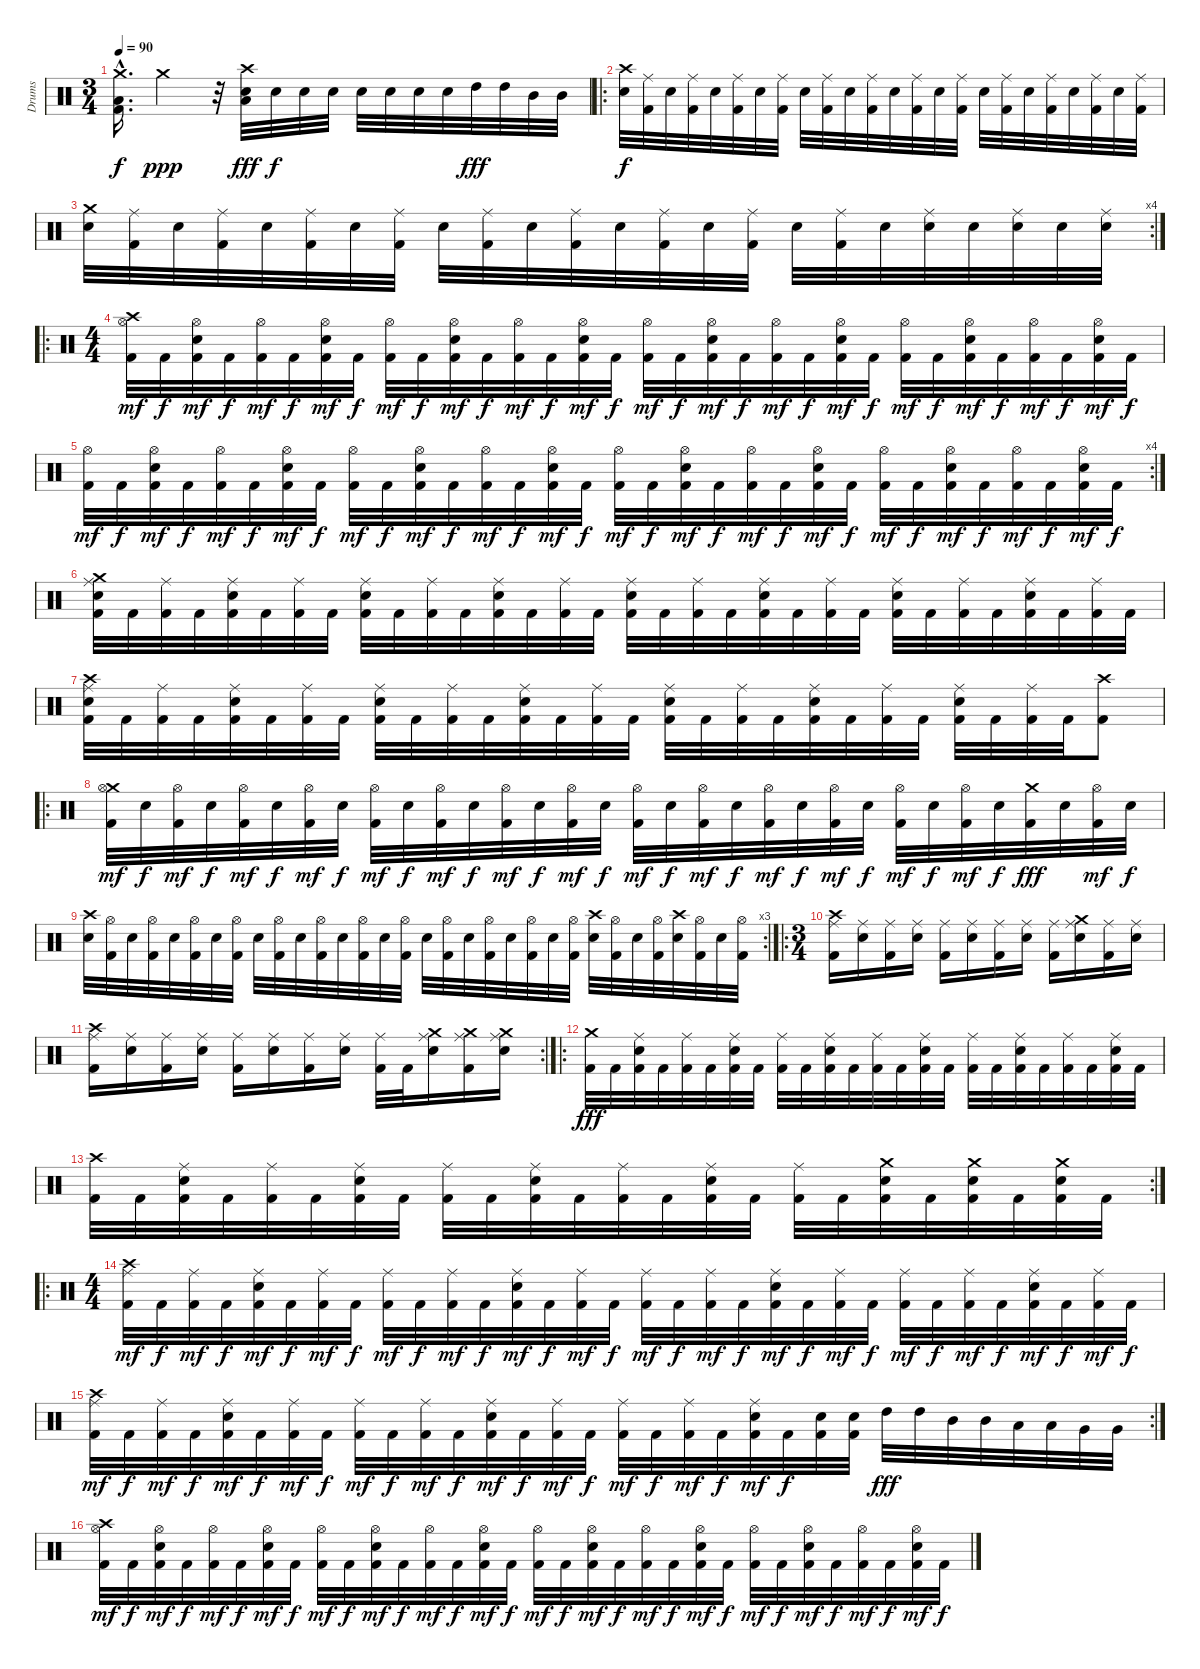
\track ("Drums" "Drums") {instrument percussion}
\staff {score}
\articulation defaults
\ts (3 4)
\tempo 90
\clef neutral
\ks c
("Crash medium (hit)"{hac} "Low Tom (hit)"{hac} "Kick (hit) 2"{hac}).16{d dy f} "Crash medium (hit)".4{dy ppp} r.32 ("Crash high (hit)" "Low Tom (hit)" "Electric Snare (hit)").32{dy fff} "Electric Snare (hit)".32{dy f} "Electric Snare (hit)".32 "Electric Snare (hit)".32 "Electric Snare (hit)".32 "Electric Snare (hit)".32 "Electric Snare (hit)".32 "Electric Snare (hit)".32 "High Tom (hit)".32{dy fff} "High Tom (hit)".32 "Mid Tom (hit)".32 "Mid Tom (hit)".32 |
\ro
("Crash high (hit)" "Electric Snare (hit)").32{dy f} ("Ride (middle)" "Kick (hit) 2").32 "Electric Snare (hit)".32 ("Ride (middle)" "Kick (hit) 2").32 "Electric Snare (hit)".32 ("Ride (middle)" "Kick (hit) 2").32 "Electric Snare (hit)".32 ("Ride (middle)" "Kick (hit) 2").32 "Electric Snare (hit)".32 ("Ride (middle)" "Kick (hit) 2").32 "Electric Snare (hit)".32 ("Ride (middle)" "Kick (hit) 2").32 "Electric Snare (hit)".32 ("Ride (middle)" "Kick (hit) 2").32 "Electric Snare (hit)".32 ("Ride (middle)" "Kick (hit) 2").32 "Electric Snare (hit)".32 ("Ride (middle)" "Kick (hit) 2").32 "Electric Snare (hit)".32 ("Ride (middle)" "Kick (hit) 2").32 "Electric Snare (hit)".32 ("Ride (middle)" "Kick (hit) 2").32 "Electric Snare (hit)".32 ("Ride (middle)" "Kick (hit) 2").32 |
\rc 4
("Crash medium (hit)" "Electric Snare (hit)").32 ("Ride (middle)" "Kick (hit) 2").32 "Electric Snare (hit)".32 ("Ride (middle)" "Kick (hit) 2").32 "Electric Snare (hit)".32 ("Ride (middle)" "Kick (hit) 2").32 "Electric Snare (hit)".32 ("Ride (middle)" "Kick (hit) 2").32 "Electric Snare (hit)".32 ("Ride (middle)" "Kick (hit) 2").32 "Electric Snare (hit)".32 ("Ride (middle)" "Kick (hit) 2").32 "Electric Snare (hit)".32 ("Ride (middle)" "Kick (hit) 2").32 "Electric Snare (hit)".32 ("Ride (middle)" "Kick (hit) 2").32 "Electric Snare (hit)".32 ("Ride (middle)" "Kick (hit) 2").32 "Electric Snare (hit)".32 ("Ride (middle)" "Electric Snare (hit)").32 "Electric Snare (hit)".32 ("Ride (middle)" "Electric Snare (hit)").32 "Electric Snare (hit)".32 ("Ride (middle)" "Electric Snare (hit)").32 |
\ro
\ts (4 4)
("Crash high (hit)" "Hi-Hat (open)" "Kick (hit) 2").32{dy mf} "Kick (hit) 2".32{dy f} ("Hi-Hat (open)" "Electric Snare (hit)" "Kick (hit) 2").32{dy mf} "Kick (hit) 2".32{dy f} ("Hi-Hat (open)" "Kick (hit) 2").32{dy mf} "Kick (hit) 2".32{dy f} ("Hi-Hat (open)" "Electric Snare (hit)" "Kick (hit) 2").32{dy mf} "Kick (hit) 2".32{dy f} ("Hi-Hat (open)" "Kick (hit) 2").32{dy mf} "Kick (hit) 2".32{dy f} ("Hi-Hat (open)" "Electric Snare (hit)" "Kick (hit) 2").32{dy mf} "Kick (hit) 2".32{dy f} ("Hi-Hat (open)" "Kick (hit) 2").32{dy mf} "Kick (hit) 2".32{dy f} ("Hi-Hat (open)" "Electric Snare (hit)" "Kick (hit) 2").32{dy mf} "Kick (hit) 2".32{dy f} ("Hi-Hat (open)" "Kick (hit) 2").32{dy mf} "Kick (hit) 2".32{dy f} ("Hi-Hat (open)" "Electric Snare (hit)" "Kick (hit) 2").32{dy mf} "Kick (hit) 2".32{dy f} ("Hi-Hat (open)" "Kick (hit) 2").32{dy mf} "Kick (hit) 2".32{dy f} ("Hi-Hat (open)" "Electric Snare (hit)" "Kick (hit) 2").32{dy mf} "Kick (hit) 2".32{dy f} ("Hi-Hat (open)" "Kick (hit) 2").32{dy mf} "Kick (hit) 2".32{dy f} ("Hi-Hat (open)" "Electric Snare (hit)" "Kick (hit) 2").32{dy mf} "Kick (hit) 2".32{dy f} ("Hi-Hat (open)" "Kick (hit) 2").32{dy mf} "Kick (hit) 2".32{dy f} ("Hi-Hat (open)" "Electric Snare (hit)" "Kick (hit) 2").32{dy mf} "Kick (hit) 2".32{dy f} |
\rc 4
("Hi-Hat (open)" "Kick (hit) 2").32{dy mf} "Kick (hit) 2".32{dy f} ("Hi-Hat (open)" "Electric Snare (hit)" "Kick (hit) 2").32{dy mf} "Kick (hit) 2".32{dy f} ("Hi-Hat (open)" "Kick (hit) 2").32{dy mf} "Kick (hit) 2".32{dy f} ("Hi-Hat (open)" "Electric Snare (hit)" "Kick (hit) 2").32{dy mf} "Kick (hit) 2".32{dy f} ("Hi-Hat (open)" "Kick (hit) 2").32{dy mf} "Kick (hit) 2".32{dy f} ("Hi-Hat (open)" "Electric Snare (hit)" "Kick (hit) 2").32{dy mf} "Kick (hit) 2".32{dy f} ("Hi-Hat (open)" "Kick (hit) 2").32{dy mf} "Kick (hit) 2".32{dy f} ("Hi-Hat (open)" "Electric Snare (hit)" "Kick (hit) 2").32{dy mf} "Kick (hit) 2".32{dy f} ("Hi-Hat (open)" "Kick (hit) 2").32{dy mf} "Kick (hit) 2".32{dy f} ("Hi-Hat (open)" "Electric Snare (hit)" "Kick (hit) 2").32{dy mf} "Kick (hit) 2".32{dy f} ("Hi-Hat (open)" "Kick (hit) 2").32{dy mf} "Kick (hit) 2".32{dy f} ("Hi-Hat (open)" "Electric Snare (hit)" "Kick (hit) 2").32{dy mf} "Kick (hit) 2".32{dy f} ("Hi-Hat (open)" "Kick (hit) 2").32{dy mf} "Kick (hit) 2".32{dy f} ("Hi-Hat (open)" "Electric Snare (hit)" "Kick (hit) 2").32{dy mf} "Kick (hit) 2".32{dy f} ("Hi-Hat (open)" "Kick (hit) 2").32{dy mf} "Kick (hit) 2".32{dy f} ("Hi-Hat (open)" "Electric Snare (hit)" "Kick (hit) 2").32{dy mf} "Kick (hit) 2".32{dy f} |
("Crash medium (hit)" "Ride (middle)" "Electric Snare (hit)" "Kick (hit) 2").32 "Kick (hit) 2".32 ("Ride (middle)" "Kick (hit) 2").32 "Kick (hit) 2".32 ("Ride (middle)" "Electric Snare (hit)" "Kick (hit) 2").32 "Kick (hit) 2".32 ("Ride (middle)" "Kick (hit) 2").32 "Kick (hit) 2".32 ("Ride (middle)" "Electric Snare (hit)" "Kick (hit) 2").32 "Kick (hit) 2".32 ("Ride (middle)" "Kick (hit) 2").32 "Kick (hit) 2".32 ("Ride (middle)" "Electric Snare (hit)" "Kick (hit) 2").32 "Kick (hit) 2".32 ("Ride (middle)" "Kick (hit) 2").32 "Kick (hit) 2".32 ("Ride (middle)" "Electric Snare (hit)" "Kick (hit) 2").32 "Kick (hit) 2".32 ("Ride (middle)" "Kick (hit) 2").32 "Kick (hit) 2".32 ("Ride (middle)" "Electric Snare (hit)" "Kick (hit) 2").32 "Kick (hit) 2".32 ("Ride (middle)" "Kick (hit) 2").32 "Kick (hit) 2".32 ("Ride (middle)" "Electric Snare (hit)" "Kick (hit) 2").32 "Kick (hit) 2".32 ("Ride (middle)" "Kick (hit) 2").32 "Kick (hit) 2".32 ("Ride (middle)" "Electric Snare (hit)" "Kick (hit) 2").32 "Kick (hit) 2".32 ("Ride (middle)" "Kick (hit) 2").32 "Kick (hit) 2".32 |
("Crash high (hit)" "Ride (middle)" "Electric Snare (hit)" "Kick (hit) 2").32 "Kick (hit) 2".32 ("Ride (middle)" "Kick (hit) 2").32 "Kick (hit) 2".32 ("Ride (middle)" "Electric Snare (hit)" "Kick (hit) 2").32 "Kick (hit) 2".32 ("Ride (middle)" "Kick (hit) 2").32 "Kick (hit) 2".32 ("Ride (middle)" "Electric Snare (hit)" "Kick (hit) 2").32 "Kick (hit) 2".32 ("Ride (middle)" "Kick (hit) 2").32 "Kick (hit) 2".32 ("Ride (middle)" "Electric Snare (hit)" "Kick (hit) 2").32 "Kick (hit) 2".32 ("Ride (middle)" "Kick (hit) 2").32 "Kick (hit) 2".32 ("Ride (middle)" "Electric Snare (hit)" "Kick (hit) 2").32 "Kick (hit) 2".32 ("Ride (middle)" "Kick (hit) 2").32 "Kick (hit) 2".32 ("Ride (middle)" "Electric Snare (hit)" "Kick (hit) 2").32 "Kick (hit) 2".32 ("Ride (middle)" "Kick (hit) 2").32 "Kick (hit) 2".32 ("Ride (middle)" "Electric Snare (hit)" "Kick (hit) 2").32 "Kick (hit) 2".32 ("Ride (middle)" "Kick (hit) 2").32 "Kick (hit) 2".32 ("Crash high (hit)" "Kick (hit) 2").8 |
\ro
("Crash medium (hit)" "Hi-Hat (open)" "Kick (hit) 2").32{dy mf} "Electric Snare (hit)".32{dy f} ("Hi-Hat (open)" "Kick (hit) 2").32{dy mf} "Electric Snare (hit)".32{dy f} ("Hi-Hat (open)" "Kick (hit) 2").32{dy mf} "Electric Snare (hit)".32{dy f} ("Hi-Hat (open)" "Kick (hit) 2").32{dy mf} "Electric Snare (hit)".32{dy f} ("Hi-Hat (open)" "Kick (hit) 2").32{dy mf} "Electric Snare (hit)".32{dy f} ("Hi-Hat (open)" "Kick (hit) 2").32{dy mf} "Electric Snare (hit)".32{dy f} ("Hi-Hat (open)" "Kick (hit) 2").32{dy mf} "Electric Snare (hit)".32{dy f} ("Hi-Hat (open)" "Kick (hit) 2").32{dy mf} "Electric Snare (hit)".32{dy f} ("Hi-Hat (open)" "Kick (hit) 2").32{dy mf} "Electric Snare (hit)".32{dy f} ("Hi-Hat (open)" "Kick (hit) 2").32{dy mf} "Electric Snare (hit)".32{dy f} ("Hi-Hat (open)" "Kick (hit) 2").32{dy mf} "Electric Snare (hit)".32{dy f} ("Hi-Hat (open)" "Kick (hit) 2").32{dy mf} "Electric Snare (hit)".32{dy f} ("Hi-Hat (open)" "Kick (hit) 2").32{dy mf} "Electric Snare (hit)".32{dy f} ("Hi-Hat (open)" "Kick (hit) 2").32{dy mf} "Electric Snare (hit)".32{dy f} ("Crash medium (hit)" "Kick (hit) 2").32{dy fff} "Electric Snare (hit)".32 ("Hi-Hat (open)" "Kick (hit) 2").32{dy mf} "Electric Snare (hit)".32{dy f} |
\rc 3
("Crash high (hit)" "Electric Snare (hit)").32 ("Hi-Hat (open)" "Kick (hit) 2").32 "Electric Snare (hit)".32 ("Hi-Hat (open)" "Kick (hit) 2").32 "Electric Snare (hit)".32 ("Hi-Hat (open)" "Kick (hit) 2").32 "Electric Snare (hit)".32 ("Hi-Hat (open)" "Kick (hit) 2").32 "Electric Snare (hit)".32 ("Hi-Hat (open)" "Kick (hit) 2").32 "Electric Snare (hit)".32 ("Hi-Hat (open)" "Kick (hit) 2").32 "Electric Snare (hit)".32 ("Hi-Hat (open)" "Kick (hit) 2").32 "Electric Snare (hit)".32 ("Hi-Hat (open)" "Kick (hit) 2").32 "Electric Snare (hit)".32 ("Hi-Hat (open)" "Kick (hit) 2").32 "Electric Snare (hit)".32 ("Hi-Hat (open)" "Kick (hit) 2").32 "Electric Snare (hit)".32 ("Hi-Hat (open)" "Kick (hit) 2").32 "Electric Snare (hit)".32 ("Hi-Hat (open)" "Kick (hit) 2").32 ("Crash high (hit)" "Electric Snare (hit)").32 ("Hi-Hat (open)" "Kick (hit) 2").32 "Electric Snare (hit)".32 ("Hi-Hat (open)" "Kick (hit) 2").32 ("Crash high (hit)" "Electric Snare (hit)").32 ("Hi-Hat (open)" "Kick (hit) 2").32 "Electric Snare (hit)".32 ("Hi-Hat (open)" "Kick (hit) 2").32 |
\ro
\ts (3 4)
("Crash high (hit)" "Ride (middle)" "Kick (hit) 2").16 ("Ride (middle)" "Electric Snare (hit)").16 ("Ride (middle)" "Kick (hit) 2").16 ("Ride (middle)" "Electric Snare (hit)").16 ("Ride (middle)" "Kick (hit) 2").16 ("Ride (middle)" "Electric Snare (hit)").16 ("Ride (middle)" "Kick (hit) 2").16 ("Ride (middle)" "Electric Snare (hit)").16 ("Ride (middle)" "Kick (hit) 2").16 ("Crash medium (hit)" "Ride (middle)" "Electric Snare (hit)").16 ("Ride (middle)" "Kick (hit) 2").16 ("Ride (middle)" "Electric Snare (hit)").16 |
\rc 2
("Crash high (hit)" "Ride (middle)" "Kick (hit) 2").16 ("Ride (middle)" "Electric Snare (hit)").16 ("Ride (middle)" "Kick (hit) 2").16 ("Ride (middle)" "Electric Snare (hit)").16 ("Ride (middle)" "Kick (hit) 2").16 ("Ride (middle)" "Electric Snare (hit)").16 ("Ride (middle)" "Kick (hit) 2").16 ("Ride (middle)" "Electric Snare (hit)").16 ("Ride (middle)" "Kick (hit) 2").32 "Kick (hit) 2".32 ("Crash medium (hit)" "Ride (middle)" "Electric Snare (hit)").16 ("Crash medium (hit)" "Ride (middle)" "Kick (hit) 2").16 ("Crash medium (hit)" "Ride (middle)" "Electric Snare (hit)").16 |
\ro
("Crash medium (hit)" "Kick (hit) 2").32{dy fff} "Kick (hit) 2".32 ("Ride (middle)" "Electric Snare (hit)" "Kick (hit) 2").32 "Kick (hit) 2".32 ("Ride (middle)" "Kick (hit) 2").32 "Kick (hit) 2".32 ("Ride (middle)" "Electric Snare (hit)" "Kick (hit) 2").32 "Kick (hit) 2".32 ("Ride (middle)" "Kick (hit) 2").32 "Kick (hit) 2".32 ("Ride (middle)" "Electric Snare (hit)" "Kick (hit) 2").32 "Kick (hit) 2".32 ("Ride (middle)" "Kick (hit) 2").32 "Kick (hit) 2".32 ("Ride (middle)" "Electric Snare (hit)" "Kick (hit) 2").32 "Kick (hit) 2".32 ("Ride (middle)" "Kick (hit) 2").32 "Kick (hit) 2".32 ("Ride (middle)" "Electric Snare (hit)" "Kick (hit) 2").32 "Kick (hit) 2".32 ("Ride (middle)" "Kick (hit) 2").32 "Kick (hit) 2".32 ("Ride (middle)" "Electric Snare (hit)" "Kick (hit) 2").32 "Kick (hit) 2".32 |
\rc 2
("Crash high (hit)" "Kick (hit) 2").32 "Kick (hit) 2".32 ("Ride (middle)" "Electric Snare (hit)" "Kick (hit) 2").32 "Kick (hit) 2".32 ("Ride (middle)" "Kick (hit) 2").32 "Kick (hit) 2".32 ("Ride (middle)" "Electric Snare (hit)" "Kick (hit) 2").32 "Kick (hit) 2".32 ("Ride (middle)" "Kick (hit) 2").32 "Kick (hit) 2".32 ("Ride (middle)" "Electric Snare (hit)" "Kick (hit) 2").32 "Kick (hit) 2".32 ("Ride (middle)" "Kick (hit) 2").32 "Kick (hit) 2".32 ("Ride (middle)" "Electric Snare (hit)" "Kick (hit) 2").32 "Kick (hit) 2".32 ("Ride (middle)" "Kick (hit) 2").32 "Kick (hit) 2".32 ("Crash medium (hit)" "Electric Snare (hit)" "Kick (hit) 2").32 "Kick (hit) 2".32 ("Crash medium (hit)" "Electric Snare (hit)" "Kick (hit) 2").32 "Kick (hit) 2".32 ("Crash medium (hit)" "Electric Snare (hit)" "Kick (hit) 2").32 "Kick (hit) 2".32 |
\ro
\ts (4 4)
("Crash high (hit)" "Ride (middle)" "Kick (hit) 2").32{dy mf} "Kick (hit) 2".32{dy f} ("Ride (middle)" "Kick (hit) 2").32{dy mf} "Kick (hit) 2".32{dy f} ("Ride (middle)" "Electric Snare (hit)" "Kick (hit) 2").32{dy mf} "Kick (hit) 2".32{dy f} ("Ride (middle)" "Kick (hit) 2").32{dy mf} "Kick (hit) 2".32{dy f} ("Ride (middle)" "Kick (hit) 2").32{dy mf} "Kick (hit) 2".32{dy f} ("Ride (middle)" "Kick (hit) 2").32{dy mf} "Kick (hit) 2".32{dy f} ("Ride (middle)" "Electric Snare (hit)" "Kick (hit) 2").32{dy mf} "Kick (hit) 2".32{dy f} ("Ride (middle)" "Kick (hit) 2").32{dy mf} "Kick (hit) 2".32{dy f} ("Ride (middle)" "Kick (hit) 2").32{dy mf} "Kick (hit) 2".32{dy f} ("Ride (middle)" "Kick (hit) 2").32{dy mf} "Kick (hit) 2".32{dy f} ("Ride (middle)" "Electric Snare (hit)" "Kick (hit) 2").32{dy mf} "Kick (hit) 2".32{dy f} ("Ride (middle)" "Kick (hit) 2").32{dy mf} "Kick (hit) 2".32{dy f} ("Ride (middle)" "Kick (hit) 2").32{dy mf} "Kick (hit) 2".32{dy f} ("Ride (middle)" "Kick (hit) 2").32{dy mf} "Kick (hit) 2".32{dy f} ("Ride (middle)" "Electric Snare (hit)" "Kick (hit) 2").32{dy mf} "Kick (hit) 2".32{dy f} ("Ride (middle)" "Kick (hit) 2").32{dy mf} "Kick (hit) 2".32{dy f} |
\rc 2
("Crash high (hit)" "Ride (middle)" "Kick (hit) 2").32{dy mf} "Kick (hit) 2".32{dy f} ("Ride (middle)" "Kick (hit) 2").32{dy mf} "Kick (hit) 2".32{dy f} ("Ride (middle)" "Electric Snare (hit)" "Kick (hit) 2").32{dy mf} "Kick (hit) 2".32{dy f} ("Ride (middle)" "Kick (hit) 2").32{dy mf} "Kick (hit) 2".32{dy f} ("Ride (middle)" "Kick (hit) 2").32{dy mf} "Kick (hit) 2".32{dy f} ("Ride (middle)" "Kick (hit) 2").32{dy mf} "Kick (hit) 2".32{dy f} ("Ride (middle)" "Electric Snare (hit)" "Kick (hit) 2").32{dy mf} "Kick (hit) 2".32{dy f} ("Ride (middle)" "Kick (hit) 2").32{dy mf} "Kick (hit) 2".32{dy f} ("Ride (middle)" "Kick (hit) 2").32{dy mf} "Kick (hit) 2".32{dy f} ("Ride (middle)" "Kick (hit) 2").32{dy mf} "Kick (hit) 2".32{dy f} ("Ride (middle)" "Electric Snare (hit)" "Kick (hit) 2").32{dy mf} "Kick (hit) 2".32{dy f} ("Electric Snare (hit)" "Kick (hit) 2").32 ("Electric Snare (hit)" "Kick (hit) 2").32 "High Tom (hit)".32{dy fff} "High Tom (hit)".32 "Mid Tom (hit)".32 "Mid Tom (hit)".32 "Low Tom (hit)".32 "Low Tom (hit)".32 "Very Low Tom (hit)".32 "Very Low Tom (hit)".32 |
("Crash high (hit)" "Hi-Hat (open)" "Kick (hit) 2").32{dy mf} "Kick (hit) 2".32{dy f} ("Hi-Hat (open)" "Electric Snare (hit)" "Kick (hit) 2").32{dy mf} "Kick (hit) 2".32{dy f} ("Hi-Hat (open)" "Kick (hit) 2").32{dy mf} "Kick (hit) 2".32{dy f} ("Hi-Hat (open)" "Electric Snare (hit)" "Kick (hit) 2").32{dy mf} "Kick (hit) 2".32{dy f} ("Hi-Hat (open)" "Kick (hit) 2").32{dy mf} "Kick (hit) 2".32{dy f} ("Hi-Hat (open)" "Electric Snare (hit)" "Kick (hit) 2").32{dy mf} "Kick (hit) 2".32{dy f} ("Hi-Hat (open)" "Kick (hit) 2").32{dy mf} "Kick (hit) 2".32{dy f} ("Hi-Hat (open)" "Electric Snare (hit)" "Kick (hit) 2").32{dy mf} "Kick (hit) 2".32{dy f} ("Hi-Hat (open)" "Kick (hit) 2").32{dy mf} "Kick (hit) 2".32{dy f} ("Hi-Hat (open)" "Electric Snare (hit)" "Kick (hit) 2").32{dy mf} "Kick (hit) 2".32{dy f} ("Hi-Hat (open)" "Kick (hit) 2").32{dy mf} "Kick (hit) 2".32{dy f} ("Hi-Hat (open)" "Electric Snare (hit)" "Kick (hit) 2").32{dy mf} "Kick (hit) 2".32{dy f} ("Hi-Hat (open)" "Kick (hit) 2").32{dy mf} "Kick (hit) 2".32{dy f} ("Hi-Hat (open)" "Electric Snare (hit)" "Kick (hit) 2").32{dy mf} "Kick (hit) 2".32{dy f} ("Hi-Hat (open)" "Kick (hit) 2").32{dy mf} "Kick (hit) 2".32{dy f} ("Hi-Hat (open)" "Electric Snare (hit)" "Kick (hit) 2").32{dy mf} "Kick (hit) 2".32{dy f}
